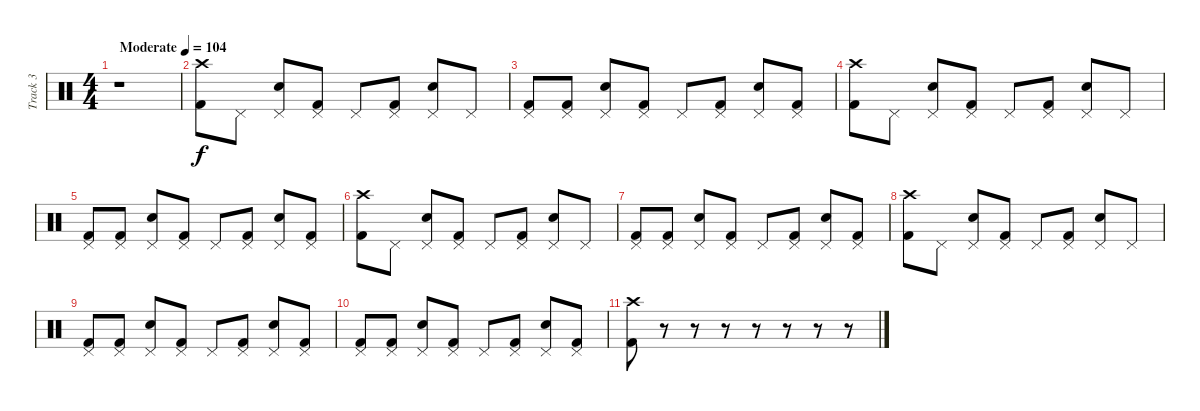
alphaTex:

\track ("Track 3" "Track 3") {instrument percussion}
\staff {score}
\articulation defaults
\ts (4 4)
\tempo (104 "Moderate")
\clef neutral
\ks c
r.1{dy f} |
("Kick (hit) 2" "Crash high (hit)").8 "Pedal Hi-Hat (hit)".8 ("Electric Snare (hit)" "Pedal Hi-Hat (hit)").8 ("Pedal Hi-Hat (hit)" "Kick (hit) 2").8 "Pedal Hi-Hat (hit)".8 ("Pedal Hi-Hat (hit)" "Kick (hit) 2").8 ("Electric Snare (hit)" "Pedal Hi-Hat (hit)").8 "Pedal Hi-Hat (hit)".8 |
("Kick (hit) 2" "Pedal Hi-Hat (hit)").8 ("Kick (hit) 2" "Pedal Hi-Hat (hit)").8 ("Electric Snare (hit)" "Pedal Hi-Hat (hit)").8 ("Kick (hit) 2" "Pedal Hi-Hat (hit)").8 "Pedal Hi-Hat (hit)".8 ("Kick (hit) 2" "Pedal Hi-Hat (hit)").8 ("Electric Snare (hit)" "Pedal Hi-Hat (hit)").8 ("Kick (hit) 2" "Pedal Hi-Hat (hit)").8 |
("Kick (hit) 2" "Crash high (hit)").8 "Pedal Hi-Hat (hit)".8 ("Electric Snare (hit)" "Pedal Hi-Hat (hit)").8 ("Pedal Hi-Hat (hit)" "Kick (hit) 2").8 "Pedal Hi-Hat (hit)".8 ("Pedal Hi-Hat (hit)" "Kick (hit) 2").8 ("Electric Snare (hit)" "Pedal Hi-Hat (hit)").8 "Pedal Hi-Hat (hit)".8 |
("Kick (hit) 2" "Pedal Hi-Hat (hit)").8 ("Kick (hit) 2" "Pedal Hi-Hat (hit)").8 ("Electric Snare (hit)" "Pedal Hi-Hat (hit)").8 ("Kick (hit) 2" "Pedal Hi-Hat (hit)").8 "Pedal Hi-Hat (hit)".8 ("Kick (hit) 2" "Pedal Hi-Hat (hit)").8 ("Electric Snare (hit)" "Pedal Hi-Hat (hit)").8 ("Kick (hit) 2" "Pedal Hi-Hat (hit)").8 |
("Kick (hit) 2" "Crash high (hit)").8 "Pedal Hi-Hat (hit)".8 ("Electric Snare (hit)" "Pedal Hi-Hat (hit)").8 ("Pedal Hi-Hat (hit)" "Kick (hit) 2").8 "Pedal Hi-Hat (hit)".8 ("Pedal Hi-Hat (hit)" "Kick (hit) 2").8 ("Electric Snare (hit)" "Pedal Hi-Hat (hit)").8 "Pedal Hi-Hat (hit)".8 |
("Kick (hit) 2" "Pedal Hi-Hat (hit)").8 ("Kick (hit) 2" "Pedal Hi-Hat (hit)").8 ("Electric Snare (hit)" "Pedal Hi-Hat (hit)").8 ("Kick (hit) 2" "Pedal Hi-Hat (hit)").8 "Pedal Hi-Hat (hit)".8 ("Kick (hit) 2" "Pedal Hi-Hat (hit)").8 ("Electric Snare (hit)" "Pedal Hi-Hat (hit)").8 ("Kick (hit) 2" "Pedal Hi-Hat (hit)").8 |
("Kick (hit) 2" "Crash high (hit)").8 "Pedal Hi-Hat (hit)".8 ("Electric Snare (hit)" "Pedal Hi-Hat (hit)").8 ("Pedal Hi-Hat (hit)" "Kick (hit) 2").8 "Pedal Hi-Hat (hit)".8 ("Pedal Hi-Hat (hit)" "Kick (hit) 2").8 ("Electric Snare (hit)" "Pedal Hi-Hat (hit)").8 "Pedal Hi-Hat (hit)".8 |
("Kick (hit) 2" "Pedal Hi-Hat (hit)").8 ("Kick (hit) 2" "Pedal Hi-Hat (hit)").8 ("Electric Snare (hit)" "Pedal Hi-Hat (hit)").8 ("Kick (hit) 2" "Pedal Hi-Hat (hit)").8 "Pedal Hi-Hat (hit)".8 ("Kick (hit) 2" "Pedal Hi-Hat (hit)").8 ("Electric Snare (hit)" "Pedal Hi-Hat (hit)").8 ("Kick (hit) 2" "Pedal Hi-Hat (hit)").8 |
("Kick (hit) 2" "Pedal Hi-Hat (hit)").8 ("Kick (hit) 2" "Pedal Hi-Hat (hit)").8 ("Electric Snare (hit)" "Pedal Hi-Hat (hit)").8 ("Kick (hit) 2" "Pedal Hi-Hat (hit)").8 "Pedal Hi-Hat (hit)".8 ("Kick (hit) 2" "Pedal Hi-Hat (hit)").8 ("Electric Snare (hit)" "Pedal Hi-Hat (hit)").8 ("Kick (hit) 2" "Pedal Hi-Hat (hit)").8 |
("Kick (hit) 2" "Crash high (hit)").8 r.8 r.8 r.8 r.8 r.8 r.8 r.8
